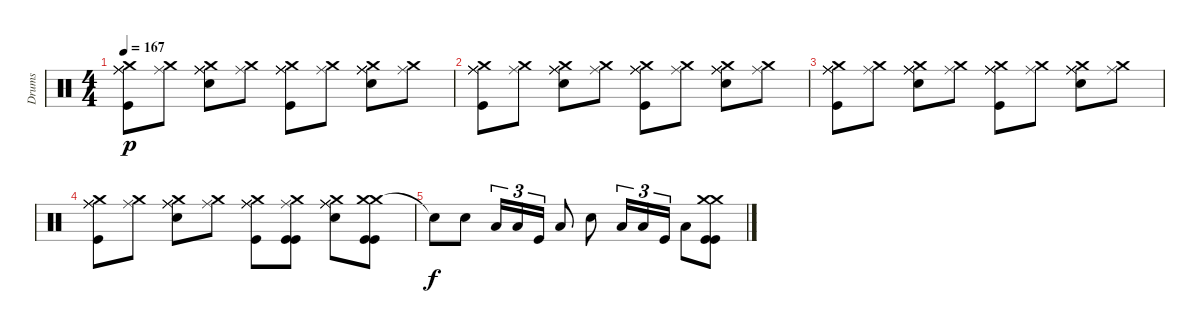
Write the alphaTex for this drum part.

\track ("Drums" "Drums") {instrument percussion}
\staff {score}
\articulation defaults
\ts (4 4)
\tempo 167
\clef neutral
\ks c
("Ride (middle)" "Crash medium (hit)" "Ride (middle)" "Ride (middle)" "Kick (hit)").8{dy p} ("Ride (middle)" "Crash medium (hit)").8 ("Ride (middle)" "Crash medium (hit)" "Snare (hit) 2" "Ride (middle)" "Ride (middle)").8 ("Ride (middle)" "Crash medium (hit)").8 ("Ride (middle)" "Crash medium (hit)" "Ride (middle)" "Ride (middle)" "Kick (hit)").8 ("Ride (middle)" "Crash medium (hit)").8 ("Ride (middle)" "Crash medium (hit)" "Snare (hit) 2" "Ride (middle)" "Ride (middle)").8 ("Ride (middle)" "Crash medium (hit)").8 |
("Ride (middle)" "Crash medium (hit)" "Ride (middle)" "Ride (middle)" "Kick (hit)").8 ("Ride (middle)" "Crash medium (hit)").8 ("Ride (middle)" "Crash medium (hit)" "Snare (hit) 2" "Ride (middle)" "Ride (middle)").8 ("Ride (middle)" "Crash medium (hit)").8 ("Ride (middle)" "Crash medium (hit)" "Ride (middle)" "Ride (middle)" "Kick (hit)").8 ("Ride (middle)" "Crash medium (hit)").8 ("Ride (middle)" "Crash medium (hit)" "Snare (hit) 2" "Ride (middle)" "Ride (middle)").8 ("Ride (middle)" "Crash medium (hit)").8 |
("Ride (middle)" "Crash medium (hit)" "Ride (middle)" "Ride (middle)" "Kick (hit)").8 ("Ride (middle)" "Crash medium (hit)").8 ("Ride (middle)" "Crash medium (hit)" "Snare (hit) 2" "Ride (middle)" "Ride (middle)").8 ("Ride (middle)" "Crash medium (hit)").8 ("Ride (middle)" "Crash medium (hit)" "Ride (middle)" "Ride (middle)" "Kick (hit)").8 ("Ride (middle)" "Crash medium (hit)").8 ("Ride (middle)" "Crash medium (hit)" "Snare (hit) 2" "Ride (middle)" "Ride (middle)").8 ("Ride (middle)" "Crash medium (hit)").8 |
("Ride (middle)" "Crash medium (hit)" "Ride (middle)" "Ride (middle)" "Kick (hit)").8 ("Ride (middle)" "Crash medium (hit)").8 ("Ride (middle)" "Crash medium (hit)" "Snare (hit) 2" "Ride (middle)" "Ride (middle)").8 ("Ride (middle)" "Crash medium (hit)").8 ("Ride (middle)" "Crash medium (hit)" "Ride (middle)" "Ride (middle)" "Kick (hit)").8 ("Ride (middle)" "Crash medium (hit)" "Kick (hit)" "Kick (hit)").8 ("Ride (middle)" "Crash medium (hit)" "Snare (hit) 2" "Ride (middle)" "Ride (middle)").8 ("Crash medium (hit)" "Crash medium (hit)" "Kick (hit)" "Kick (hit)").8 |
"Snare (hit)"{t}.8{dy f} "Snare (hit) 2".8 "Low Tom (hit)".16{tu (3 2)} "Low Tom (hit)".16{tu (3 2)} "Kick (hit)".16{tu (3 2)} "Low Tom (hit)".8 "Snare (hit) 2".8 "Low Tom (hit)".16{tu (3 2)} "Low Tom (hit)".16{tu (3 2)} "Kick (hit)".16{tu (3 2)} "Low Tom (hit)".8 ("Crash medium (hit)" "Crash medium (hit)" "Kick (hit)" "Kick (hit)").8
